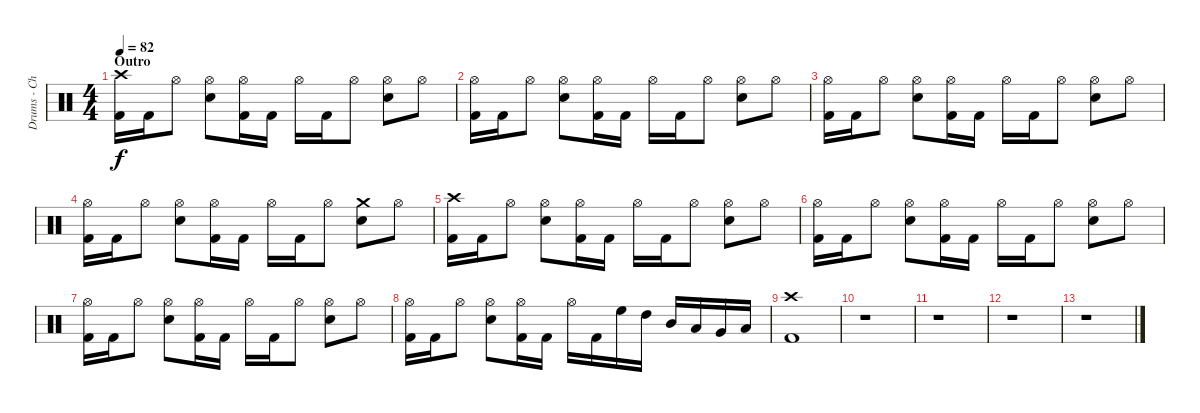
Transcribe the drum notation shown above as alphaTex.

\track ("Drums - Christoph Schneider" "Drums - Ch") {instrument percussion}
\staff {score}
\articulation defaults
\ts (4 4)
\section ("" "Outro")
\tempo 82
\clef neutral
\ks c
("Crash high (hit)" "Kick (hit) 2").16{dy f} "Kick (hit) 2".16 "Hi-Hat (open)".8 ("Hi-Hat (open)" "Snare (hit) 2").8 ("Hi-Hat (open)" "Kick (hit) 2").16 "Kick (hit) 2".16 "Hi-Hat (open)".16 "Kick (hit) 2".16 "Hi-Hat (open)".8 ("Hi-Hat (open)" "Snare (hit) 2").8 "Hi-Hat (open)".8 |
("Hi-Hat (open)" "Kick (hit) 2").16 "Kick (hit) 2".16 "Hi-Hat (open)".8 ("Hi-Hat (open)" "Snare (hit) 2").8 ("Hi-Hat (open)" "Kick (hit) 2").16 "Kick (hit) 2".16 "Hi-Hat (open)".16 "Kick (hit) 2".16 "Hi-Hat (open)".8 ("Hi-Hat (open)" "Snare (hit) 2").8 "Hi-Hat (open)".8 |
("Hi-Hat (open)" "Kick (hit) 2").16 "Kick (hit) 2".16 "Hi-Hat (open)".8 ("Hi-Hat (open)" "Snare (hit) 2").8 ("Hi-Hat (open)" "Kick (hit) 2").16 "Kick (hit) 2".16 "Hi-Hat (open)".16 "Kick (hit) 2".16 "Hi-Hat (open)".8 ("Hi-Hat (open)" "Snare (hit) 2").8 "Hi-Hat (open)".8 |
("Hi-Hat (open)" "Kick (hit) 2").16 "Kick (hit) 2".16 "Hi-Hat (open)".8 ("Hi-Hat (open)" "Snare (hit) 2").8 ("Hi-Hat (open)" "Kick (hit) 2").16 "Kick (hit) 2".16 "Hi-Hat (open)".16 "Kick (hit) 2".16 "Hi-Hat (open)".8 ("Crash medium (hit)" "Snare (hit) 2").8 "Hi-Hat (open)".8 |
("Crash high (hit)" "Kick (hit) 2").16 "Kick (hit) 2".16 "Hi-Hat (open)".8 ("Hi-Hat (open)" "Snare (hit) 2").8 ("Hi-Hat (open)" "Kick (hit) 2").16 "Kick (hit) 2".16 "Hi-Hat (open)".16 "Kick (hit) 2".16 "Hi-Hat (open)".8 ("Hi-Hat (open)" "Snare (hit) 2").8 "Hi-Hat (open)".8 |
("Hi-Hat (open)" "Kick (hit) 2").16 "Kick (hit) 2".16 "Hi-Hat (open)".8 ("Hi-Hat (open)" "Snare (hit) 2").8 ("Hi-Hat (open)" "Kick (hit) 2").16 "Kick (hit) 2".16 "Hi-Hat (open)".16 "Kick (hit) 2".16 "Hi-Hat (open)".8 ("Hi-Hat (open)" "Snare (hit) 2").8 "Hi-Hat (open)".8 |
("Hi-Hat (open)" "Kick (hit) 2").16 "Kick (hit) 2".16 "Hi-Hat (open)".8 ("Hi-Hat (open)" "Snare (hit) 2").8 ("Hi-Hat (open)" "Kick (hit) 2").16 "Kick (hit) 2".16 "Hi-Hat (open)".16 "Kick (hit) 2".16 "Hi-Hat (open)".8 ("Hi-Hat (open)" "Snare (hit) 2").8 "Hi-Hat (open)".8 |
("Hi-Hat (open)" "Kick (hit) 2").16 "Kick (hit) 2".16 "Hi-Hat (open)".8 ("Hi-Hat (open)" "Snare (hit) 2").8 ("Hi-Hat (open)" "Kick (hit) 2").16 "Kick (hit) 2".16 "Hi-Hat (open)".16 "Kick (hit) 2".16 "High Floor Tom (hit)".16 "High Tom (hit)".16 "Mid Tom (hit)".16 "Low Tom (hit)".16 "Very Low Tom (hit)".16 "Low Floor Tom (hit)".16 |
("Crash high (hit)" "Kick (hit) 2").1 |
r.1 |
r.1 |
r.1 |
r.1
